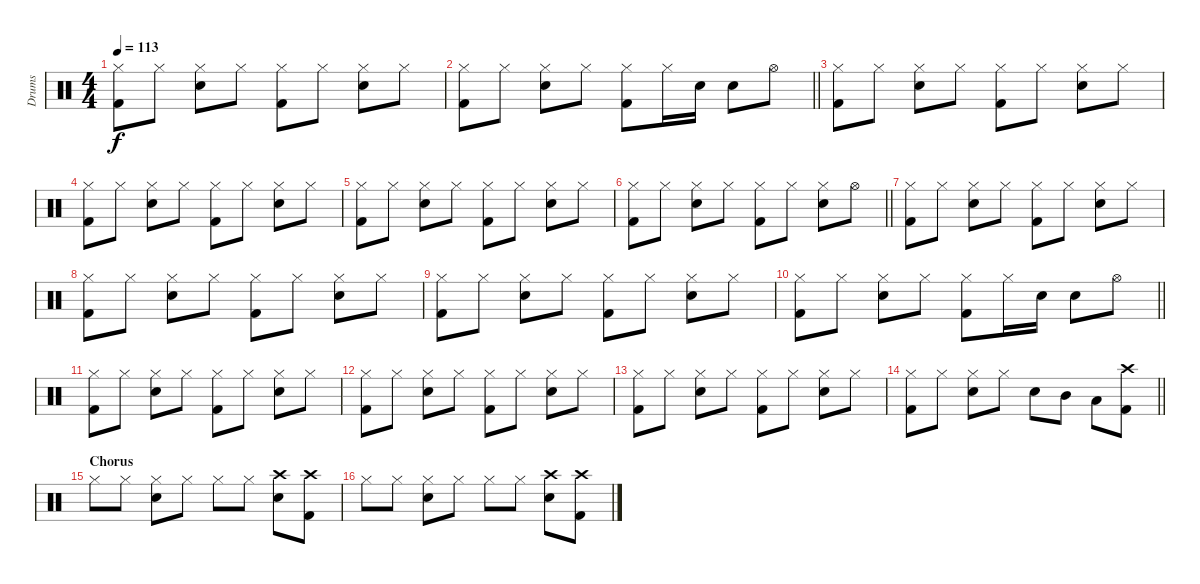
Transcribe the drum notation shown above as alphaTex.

\track ("Drums" "Drums") {instrument percussion}
\staff {score}
\articulation defaults
\ts (4 4)
\tempo 113
\clef neutral
\ks c
("Hi-Hat (closed)" "Kick (hit) 2").8{dy f} "Hi-Hat (closed)".8 ("Hi-Hat (closed)" "Electric Snare (hit)").8 "Hi-Hat (closed)".8 ("Hi-Hat (closed)" "Kick (hit) 2").8 "Hi-Hat (closed)".8 ("Hi-Hat (closed)" "Electric Snare (hit)").8 "Hi-Hat (closed)".8 |
\barLineRight lightlight
("Hi-Hat (closed)" "Kick (hit) 2").8 "Hi-Hat (closed)".8 ("Hi-Hat (closed)" "Electric Snare (hit)").8 "Hi-Hat (closed)".8 ("Hi-Hat (closed)" "Kick (hit) 2").8 "Hi-Hat (closed)".16 "Electric Snare (hit)".16 "Electric Snare (hit)".8 "Hi-Hat (open)".8 |
\section ("" "")
("Hi-Hat (closed)" "Kick (hit) 2").8 "Hi-Hat (closed)".8 ("Hi-Hat (closed)" "Electric Snare (hit)").8 "Hi-Hat (closed)".8 ("Hi-Hat (closed)" "Kick (hit) 2").8 "Hi-Hat (closed)".8 ("Hi-Hat (closed)" "Electric Snare (hit)").8 "Hi-Hat (closed)".8 |
("Hi-Hat (closed)" "Kick (hit) 2").8 "Hi-Hat (closed)".8 ("Hi-Hat (closed)" "Electric Snare (hit)").8 "Hi-Hat (closed)".8 ("Hi-Hat (closed)" "Kick (hit) 2").8 "Hi-Hat (closed)".8 ("Hi-Hat (closed)" "Electric Snare (hit)").8 "Hi-Hat (closed)".8 |
("Hi-Hat (closed)" "Kick (hit) 2").8 "Hi-Hat (closed)".8 ("Hi-Hat (closed)" "Electric Snare (hit)").8 "Hi-Hat (closed)".8 ("Hi-Hat (closed)" "Kick (hit) 2").8 "Hi-Hat (closed)".8 ("Hi-Hat (closed)" "Electric Snare (hit)").8 "Hi-Hat (closed)".8 |
\barLineRight lightlight
("Hi-Hat (closed)" "Kick (hit) 2").8 "Hi-Hat (closed)".8 ("Hi-Hat (closed)" "Electric Snare (hit)").8 "Hi-Hat (closed)".8 ("Hi-Hat (closed)" "Kick (hit) 2").8 "Hi-Hat (closed)".8 ("Hi-Hat (closed)" "Electric Snare (hit)").8 "Hi-Hat (open)".8 |
\section ("" "")
("Hi-Hat (closed)" "Kick (hit) 2").8 "Hi-Hat (closed)".8 ("Hi-Hat (closed)" "Electric Snare (hit)").8 "Hi-Hat (closed)".8 ("Hi-Hat (closed)" "Kick (hit) 2").8 "Hi-Hat (closed)".8 ("Hi-Hat (closed)" "Electric Snare (hit)").8 "Hi-Hat (closed)".8 |
("Hi-Hat (closed)" "Kick (hit) 2").8 "Hi-Hat (closed)".8 ("Hi-Hat (closed)" "Electric Snare (hit)").8 "Hi-Hat (closed)".8 ("Hi-Hat (closed)" "Kick (hit) 2").8 "Hi-Hat (closed)".8 ("Hi-Hat (closed)" "Electric Snare (hit)").8 "Hi-Hat (closed)".8 |
("Hi-Hat (closed)" "Kick (hit) 2").8 "Hi-Hat (closed)".8 ("Hi-Hat (closed)" "Electric Snare (hit)").8 "Hi-Hat (closed)".8 ("Hi-Hat (closed)" "Kick (hit) 2").8 "Hi-Hat (closed)".8 ("Hi-Hat (closed)" "Electric Snare (hit)").8 "Hi-Hat (closed)".8 |
\barLineRight lightlight
("Hi-Hat (closed)" "Kick (hit) 2").8 "Hi-Hat (closed)".8 ("Hi-Hat (closed)" "Electric Snare (hit)").8 "Hi-Hat (closed)".8 ("Hi-Hat (closed)" "Kick (hit) 2").8 "Hi-Hat (closed)".16 "Electric Snare (hit)".16 "Electric Snare (hit)".8 "Hi-Hat (open)".8 |
\section ("" "")
("Hi-Hat (closed)" "Kick (hit) 2").8 "Hi-Hat (closed)".8 ("Hi-Hat (closed)" "Electric Snare (hit)").8 "Hi-Hat (closed)".8 ("Hi-Hat (closed)" "Kick (hit) 2").8 "Hi-Hat (closed)".8 ("Hi-Hat (closed)" "Electric Snare (hit)").8 "Hi-Hat (closed)".8 |
("Hi-Hat (closed)" "Kick (hit) 2").8 "Hi-Hat (closed)".8 ("Hi-Hat (closed)" "Electric Snare (hit)").8 "Hi-Hat (closed)".8 ("Hi-Hat (closed)" "Kick (hit) 2").8 "Hi-Hat (closed)".8 ("Hi-Hat (closed)" "Electric Snare (hit)").8 "Hi-Hat (closed)".8 |
("Hi-Hat (closed)" "Kick (hit) 2").8 "Hi-Hat (closed)".8 ("Hi-Hat (closed)" "Electric Snare (hit)").8 "Hi-Hat (closed)".8 ("Hi-Hat (closed)" "Kick (hit) 2").8 "Hi-Hat (closed)".8 ("Hi-Hat (closed)" "Electric Snare (hit)").8 "Hi-Hat (closed)".8 |
\barLineRight lightlight
("Hi-Hat (closed)" "Kick (hit) 2").8 "Hi-Hat (closed)".8 ("Hi-Hat (closed)" "Electric Snare (hit)").8 "Hi-Hat (closed)".8 "Electric Snare (hit)".8 "Mid Tom (hit)".8 "Low Tom (hit)".8 ("Crash high (hit)" "Kick (hit) 2").8 |
\section ("" "Chorus")
"Hi-Hat (closed)".8 "Hi-Hat (closed)".8 ("Hi-Hat (closed)" "Electric Snare (hit)").8 "Hi-Hat (closed)".8 "Hi-Hat (closed)".8 "Hi-Hat (closed)".8 ("Crash high (hit)" "Electric Snare (hit)").8 ("Crash high (hit)" "Kick (hit) 2").8 |
"Hi-Hat (closed)".8 "Hi-Hat (closed)".8 ("Hi-Hat (closed)" "Electric Snare (hit)").8 "Hi-Hat (closed)".8 "Hi-Hat (closed)".8 "Hi-Hat (closed)".8 ("Crash high (hit)" "Electric Snare (hit)").8 ("Crash high (hit)" "Kick (hit) 2").8
